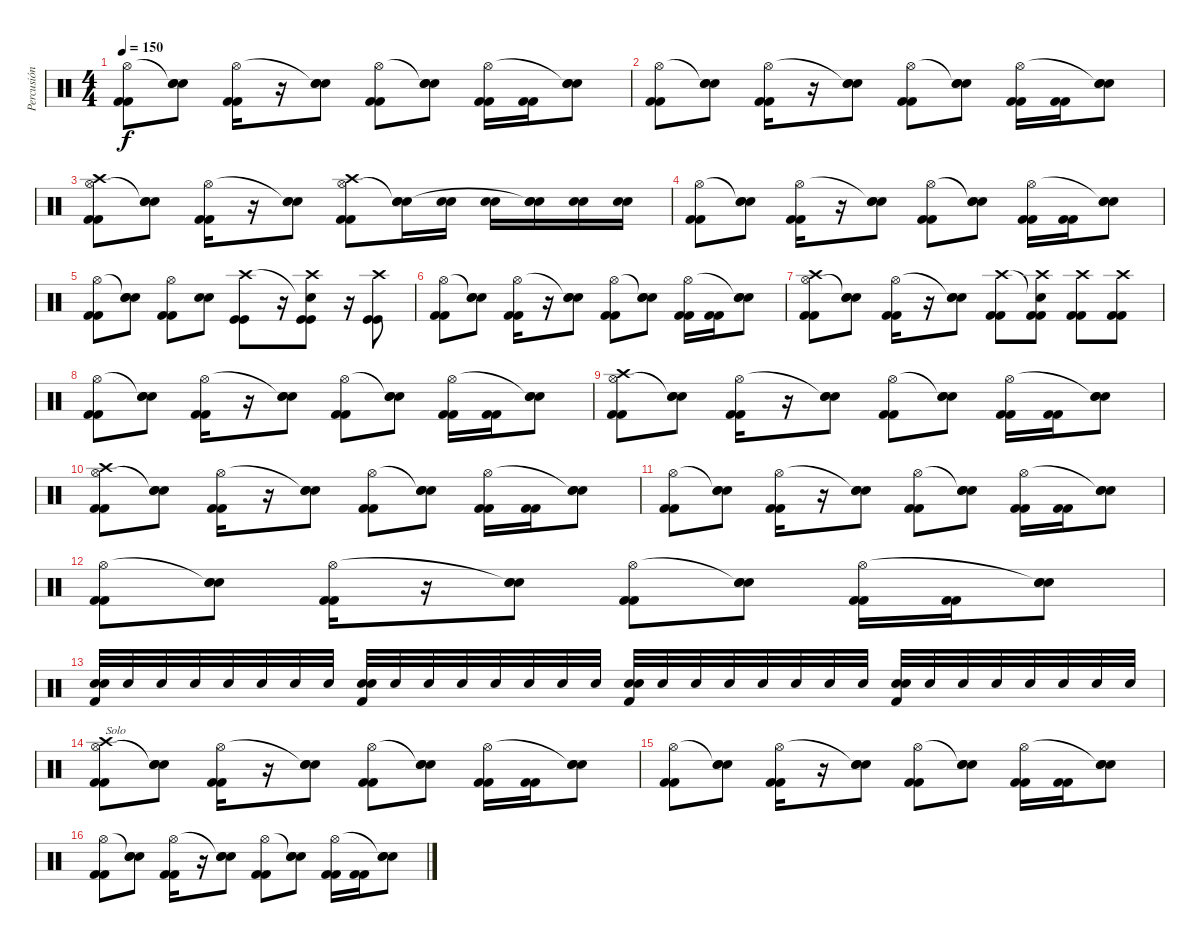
\track ("Percusión" "Percusión") {instrument percussion}
\staff {score}
\articulation defaults
\ts (4 4)
\tempo 150
\clef neutral
\ks c
("Kick (hit) 2" "Kick (hit) 2" "Hi-Hat (open)").8{dy f} ("Snare (hit) 2" "Snare (hit) 2" "Snare (hit)"{t}).8 ("Kick (hit) 2" "Kick (hit) 2" "Hi-Hat (open)").16 r.16 ("Snare (hit) 2" "Snare (hit) 2" "Snare (hit)"{t}).8 ("Kick (hit) 2" "Kick (hit) 2" "Hi-Hat (open)").8 ("Snare (hit) 2" "Snare (hit) 2" "Snare (hit)"{t}).8 ("Kick (hit) 2" "Kick (hit) 2" "Hi-Hat (open)").16 ("Kick (hit) 2" "Kick (hit) 2").16 ("Snare (hit) 2" "Snare (hit) 2" "Snare (hit)"{t}).8 |
("Kick (hit) 2" "Kick (hit) 2" "Hi-Hat (open)").8 ("Snare (hit) 2" "Snare (hit) 2" "Snare (hit)"{t}).8 ("Kick (hit) 2" "Kick (hit) 2" "Hi-Hat (open)").16 r.16 ("Snare (hit) 2" "Snare (hit) 2" "Snare (hit)"{t}).8 ("Kick (hit) 2" "Kick (hit) 2" "Hi-Hat (open)").8 ("Snare (hit) 2" "Snare (hit) 2" "Snare (hit)"{t}).8 ("Kick (hit) 2" "Kick (hit) 2" "Hi-Hat (open)").16 ("Kick (hit) 2" "Kick (hit) 2").16 ("Snare (hit) 2" "Snare (hit) 2" "Snare (hit)"{t}).8 |
("Kick (hit) 2" "Kick (hit) 2" "Hi-Hat (open)" "Crash high (hit)").8 ("Snare (hit) 2" "Snare (hit) 2" "Snare (hit)"{t}).8 ("Kick (hit) 2" "Kick (hit) 2" "Hi-Hat (open)").16 r.16 ("Snare (hit) 2" "Snare (hit) 2" "Snare (hit)"{t}).8 ("Kick (hit) 2" "Kick (hit) 2" "Hi-Hat (open)" "Crash high (hit)").8 ("Snare (hit) 2" "Snare (hit) 2" "Snare (hit)"{t}).16 ("Snare (hit) 2" "Snare (hit) 2").16 ("Snare (hit) 2" "Snare (hit) 2").16 ("Snare (hit) 2" "Snare (hit) 2" "Snare (hit)"{t}).16 ("Snare (hit) 2" "Snare (hit) 2").16 ("Snare (hit) 2" "Snare (hit) 2").16 |
("Kick (hit) 2" "Kick (hit) 2" "Hi-Hat (open)").8 ("Snare (hit) 2" "Snare (hit) 2" "Snare (hit)"{t}).8 ("Kick (hit) 2" "Kick (hit) 2" "Hi-Hat (open)").16 r.16 ("Snare (hit) 2" "Snare (hit) 2" "Snare (hit)"{t}).8 ("Kick (hit) 2" "Kick (hit) 2" "Hi-Hat (open)").8 ("Snare (hit) 2" "Snare (hit) 2" "Snare (hit)"{t}).8 ("Kick (hit) 2" "Kick (hit) 2" "Hi-Hat (open)").16 ("Kick (hit) 2" "Kick (hit) 2").16 ("Snare (hit) 2" "Snare (hit) 2" "Snare (hit)"{t}).8 |
("Kick (hit) 2" "Kick (hit) 2" "Hi-Hat (open)").8 ("Snare (hit) 2" "Snare (hit) 2" "Snare (hit)"{t}).8 ("Kick (hit) 2" "Kick (hit) 2" "Hi-Hat (open)").8 ("Snare (hit) 2" "Snare (hit) 2").8 ("Kick (hit)" "Kick (hit)" "Crash high (hit)").8 r.16 ("Kick (hit)" "Kick (hit)" "Snare (hit)"{t} "Crash high (hit)").8 r.16 ("Kick (hit)" "Kick (hit)" "Crash high (hit)").8 |
("Kick (hit) 2" "Kick (hit) 2" "Hi-Hat (open)").8 ("Snare (hit) 2" "Snare (hit) 2" "Snare (hit)"{t}).8 ("Kick (hit) 2" "Kick (hit) 2" "Hi-Hat (open)").16 r.16 ("Snare (hit) 2" "Snare (hit) 2" "Snare (hit)"{t}).8 ("Kick (hit) 2" "Kick (hit) 2" "Hi-Hat (open)").8 ("Snare (hit) 2" "Snare (hit) 2" "Snare (hit)"{t}).8 ("Kick (hit) 2" "Kick (hit) 2" "Hi-Hat (open)").16 ("Kick (hit) 2" "Kick (hit) 2").16 ("Snare (hit) 2" "Snare (hit) 2" "Snare (hit)"{t}).8 |
("Kick (hit) 2" "Kick (hit) 2" "Hi-Hat (open)" "Crash high (hit)").8 ("Snare (hit) 2" "Snare (hit) 2" "Snare (hit)"{t}).8 ("Kick (hit) 2" "Kick (hit) 2" "Hi-Hat (open)").16 r.16 ("Snare (hit) 2" "Snare (hit) 2" "Snare (hit)"{t}).8 ("Kick (hit) 2" "Kick (hit) 2" "Crash high (hit)").8 ("Kick (hit) 2" "Kick (hit) 2" "Snare (hit)"{t} "Crash high (hit)").8 ("Kick (hit) 2" "Kick (hit) 2" "Crash high (hit)").8 ("Kick (hit) 2" "Kick (hit) 2" "Crash high (hit)").8 |
("Kick (hit) 2" "Kick (hit) 2" "Hi-Hat (open)").8 ("Snare (hit) 2" "Snare (hit) 2" "Snare (hit)"{t}).8 ("Kick (hit) 2" "Kick (hit) 2" "Hi-Hat (open)").16 r.16 ("Snare (hit) 2" "Snare (hit) 2" "Snare (hit)"{t}).8 ("Kick (hit) 2" "Kick (hit) 2" "Hi-Hat (open)").8 ("Snare (hit) 2" "Snare (hit) 2" "Snare (hit)"{t}).8 ("Kick (hit) 2" "Kick (hit) 2" "Hi-Hat (open)").16 ("Kick (hit) 2" "Kick (hit) 2").16 ("Snare (hit) 2" "Snare (hit) 2" "Snare (hit)"{t}).8 |
("Kick (hit) 2" "Kick (hit) 2" "Hi-Hat (open)" "Crash high (hit)").8 ("Snare (hit) 2" "Snare (hit) 2" "Snare (hit)"{t}).8 ("Kick (hit) 2" "Kick (hit) 2" "Hi-Hat (open)").16 r.16 ("Snare (hit) 2" "Snare (hit) 2" "Snare (hit)"{t}).8 ("Kick (hit) 2" "Kick (hit) 2" "Hi-Hat (open)").8 ("Snare (hit) 2" "Snare (hit) 2" "Snare (hit)"{t}).8 ("Kick (hit) 2" "Kick (hit) 2" "Hi-Hat (open)").16 ("Kick (hit) 2" "Kick (hit) 2").16 ("Snare (hit) 2" "Snare (hit) 2" "Snare (hit)"{t}).8 |
("Kick (hit) 2" "Kick (hit) 2" "Hi-Hat (open)" "Crash high (hit)").8 ("Snare (hit) 2" "Snare (hit) 2" "Snare (hit)"{t}).8 ("Kick (hit) 2" "Kick (hit) 2" "Hi-Hat (open)").16 r.16 ("Snare (hit) 2" "Snare (hit) 2" "Snare (hit)"{t}).8 ("Kick (hit) 2" "Kick (hit) 2" "Hi-Hat (open)").8 ("Snare (hit) 2" "Snare (hit) 2" "Snare (hit)"{t}).8 ("Kick (hit) 2" "Kick (hit) 2" "Hi-Hat (open)").16 ("Kick (hit) 2" "Kick (hit) 2").16 ("Snare (hit) 2" "Snare (hit) 2" "Snare (hit)"{t}).8 |
("Kick (hit) 2" "Kick (hit) 2" "Hi-Hat (open)").8 ("Snare (hit) 2" "Snare (hit) 2" "Snare (hit)"{t}).8 ("Kick (hit) 2" "Kick (hit) 2" "Hi-Hat (open)").16 r.16 ("Snare (hit) 2" "Snare (hit) 2" "Snare (hit)"{t}).8 ("Kick (hit) 2" "Kick (hit) 2" "Hi-Hat (open)").8 ("Snare (hit) 2" "Snare (hit) 2" "Snare (hit)"{t}).8 ("Kick (hit) 2" "Kick (hit) 2" "Hi-Hat (open)").16 ("Kick (hit) 2" "Kick (hit) 2").16 ("Snare (hit) 2" "Snare (hit) 2" "Snare (hit)"{t}).8 |
("Kick (hit) 2" "Kick (hit) 2" "Hi-Hat (open)").8 ("Snare (hit) 2" "Snare (hit) 2" "Snare (hit)"{t}).8 ("Kick (hit) 2" "Kick (hit) 2" "Hi-Hat (open)").16 r.16 ("Snare (hit) 2" "Snare (hit) 2" "Snare (hit)"{t}).8 ("Kick (hit) 2" "Kick (hit) 2" "Hi-Hat (open)").8 ("Snare (hit) 2" "Snare (hit) 2" "Snare (hit)"{t}).8 ("Kick (hit) 2" "Kick (hit) 2" "Hi-Hat (open)").16 ("Kick (hit) 2" "Kick (hit) 2").16 ("Snare (hit) 2" "Snare (hit) 2" "Snare (hit)"{t}).8 |
("Snare (hit) 2" "Snare (hit) 2" "Kick (hit) 2").32 "Snare (hit) 2".32 "Snare (hit) 2".32 "Snare (hit) 2".32 "Snare (hit) 2".32 "Snare (hit) 2".32 "Snare (hit) 2".32 "Snare (hit) 2".32 ("Snare (hit) 2" "Snare (hit) 2" "Kick (hit) 2").32 "Snare (hit) 2".32 "Snare (hit) 2".32 "Snare (hit) 2".32 "Snare (hit) 2".32 "Snare (hit) 2".32 "Snare (hit) 2".32 "Snare (hit) 2".32 ("Snare (hit) 2" "Snare (hit) 2" "Kick (hit) 2").32 "Snare (hit) 2".32 "Snare (hit) 2".32 "Snare (hit) 2".32 "Snare (hit) 2".32 "Snare (hit) 2".32 "Snare (hit) 2".32 "Snare (hit) 2".32 ("Snare (hit) 2" "Snare (hit) 2" "Kick (hit) 2").32 "Snare (hit) 2".32 "Snare (hit) 2".32 "Snare (hit) 2".32 "Snare (hit) 2".32 "Snare (hit) 2".32 "Snare (hit) 2".32 "Snare (hit) 2".32 |
("Kick (hit) 2" "Kick (hit) 2" "Hi-Hat (open)" "Crash high (hit)").8{txt "Solo"} ("Snare (hit) 2" "Snare (hit) 2" "Snare (hit)"{t}).8 ("Kick (hit) 2" "Kick (hit) 2" "Hi-Hat (open)").16 r.16 ("Snare (hit) 2" "Snare (hit) 2" "Snare (hit)"{t}).8 ("Kick (hit) 2" "Kick (hit) 2" "Hi-Hat (open)").8 ("Snare (hit) 2" "Snare (hit) 2" "Snare (hit)"{t}).8 ("Kick (hit) 2" "Kick (hit) 2" "Hi-Hat (open)").16 ("Kick (hit) 2" "Kick (hit) 2").16 ("Snare (hit) 2" "Snare (hit) 2" "Snare (hit)"{t}).8 |
("Kick (hit) 2" "Kick (hit) 2" "Hi-Hat (open)").8 ("Snare (hit) 2" "Snare (hit) 2" "Snare (hit)"{t}).8 ("Kick (hit) 2" "Kick (hit) 2" "Hi-Hat (open)").16 r.16 ("Snare (hit) 2" "Snare (hit) 2" "Snare (hit)"{t}).8 ("Kick (hit) 2" "Kick (hit) 2" "Hi-Hat (open)").8 ("Snare (hit) 2" "Snare (hit) 2" "Snare (hit)"{t}).8 ("Kick (hit) 2" "Kick (hit) 2" "Hi-Hat (open)").16 ("Kick (hit) 2" "Kick (hit) 2").16 ("Snare (hit) 2" "Snare (hit) 2" "Snare (hit)"{t}).8 |
("Kick (hit) 2" "Kick (hit) 2" "Hi-Hat (open)").8 ("Snare (hit) 2" "Snare (hit) 2" "Snare (hit)"{t}).8 ("Kick (hit) 2" "Kick (hit) 2" "Hi-Hat (open)").16 r.16 ("Snare (hit) 2" "Snare (hit) 2" "Snare (hit)"{t}).8 ("Kick (hit) 2" "Kick (hit) 2" "Hi-Hat (open)").8 ("Snare (hit) 2" "Snare (hit) 2" "Snare (hit)"{t}).8 ("Kick (hit) 2" "Kick (hit) 2" "Hi-Hat (open)").16 ("Kick (hit) 2" "Kick (hit) 2").16 ("Snare (hit) 2" "Snare (hit) 2" "Snare (hit)"{t}).8
